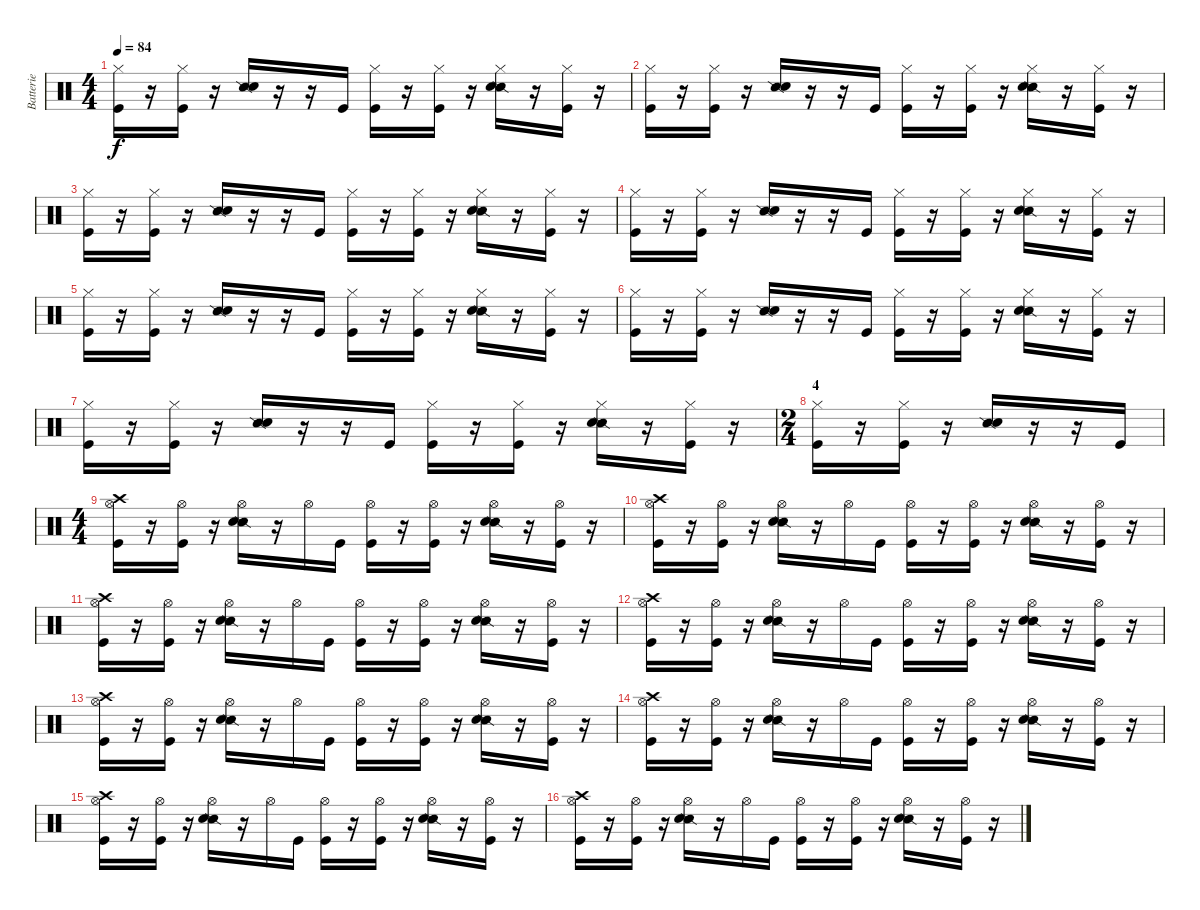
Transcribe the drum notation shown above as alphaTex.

\track ("Batterie" "Batterie") {instrument percussion}
\staff {score}
\articulation defaults
\ts (4 4)
\tempo 84
\clef neutral
\ks c
("Hi-Hat (closed)" "Kick (hit)").16{dy f} r.16 ("Hi-Hat (closed)" "Kick (hit)").16 r.16 ("Snare (side stick) 2" "Electric Snare (hit)").16 r.16 r.16 "Kick (hit)".16 ("Hi-Hat (closed)" "Kick (hit)").16 r.16 ("Hi-Hat (closed)" "Kick (hit)").16 r.16 ("Hi-Hat (closed)" "Snare (side stick) 2" "Electric Snare (hit)").16 r.16 ("Hi-Hat (closed)" "Kick (hit)").16 r.16 |
("Hi-Hat (closed)" "Kick (hit)").16 r.16 ("Hi-Hat (closed)" "Kick (hit)").16 r.16 ("Snare (side stick) 2" "Electric Snare (hit)").16 r.16 r.16 "Kick (hit)".16 ("Hi-Hat (closed)" "Kick (hit)").16 r.16 ("Hi-Hat (closed)" "Kick (hit)").16 r.16 ("Hi-Hat (closed)" "Snare (side stick) 2" "Electric Snare (hit)").16 r.16 ("Hi-Hat (closed)" "Kick (hit)").16 r.16 |
("Hi-Hat (closed)" "Kick (hit)").16 r.16 ("Hi-Hat (closed)" "Kick (hit)").16 r.16 ("Snare (side stick) 2" "Electric Snare (hit)").16 r.16 r.16 "Kick (hit)".16 ("Hi-Hat (closed)" "Kick (hit)").16 r.16 ("Hi-Hat (closed)" "Kick (hit)").16 r.16 ("Hi-Hat (closed)" "Snare (side stick) 2" "Electric Snare (hit)").16 r.16 ("Hi-Hat (closed)" "Kick (hit)").16 r.16 |
("Hi-Hat (closed)" "Kick (hit)").16 r.16 ("Hi-Hat (closed)" "Kick (hit)").16 r.16 ("Snare (side stick) 2" "Electric Snare (hit)").16 r.16 r.16 "Kick (hit)".16 ("Hi-Hat (closed)" "Kick (hit)").16 r.16 ("Hi-Hat (closed)" "Kick (hit)").16 r.16 ("Hi-Hat (closed)" "Snare (side stick) 2" "Electric Snare (hit)").16 r.16 ("Hi-Hat (closed)" "Kick (hit)").16 r.16 |
("Hi-Hat (closed)" "Kick (hit)").16 r.16 ("Hi-Hat (closed)" "Kick (hit)").16 r.16 ("Snare (side stick) 2" "Electric Snare (hit)").16 r.16 r.16 "Kick (hit)".16 ("Hi-Hat (closed)" "Kick (hit)").16 r.16 ("Hi-Hat (closed)" "Kick (hit)").16 r.16 ("Hi-Hat (closed)" "Snare (side stick) 2" "Electric Snare (hit)").16 r.16 ("Hi-Hat (closed)" "Kick (hit)").16 r.16 |
("Hi-Hat (closed)" "Kick (hit)").16 r.16 ("Hi-Hat (closed)" "Kick (hit)").16 r.16 ("Snare (side stick) 2" "Electric Snare (hit)").16 r.16 r.16 "Kick (hit)".16 ("Hi-Hat (closed)" "Kick (hit)").16 r.16 ("Hi-Hat (closed)" "Kick (hit)").16 r.16 ("Hi-Hat (closed)" "Snare (side stick) 2" "Electric Snare (hit)").16 r.16 ("Hi-Hat (closed)" "Kick (hit)").16 r.16 |
("Hi-Hat (closed)" "Kick (hit)").16 r.16 ("Hi-Hat (closed)" "Kick (hit)").16 r.16 ("Snare (side stick) 2" "Electric Snare (hit)").16 r.16 r.16 "Kick (hit)".16 ("Hi-Hat (closed)" "Kick (hit)").16 r.16 ("Hi-Hat (closed)" "Kick (hit)").16 r.16 ("Hi-Hat (closed)" "Snare (side stick) 2" "Electric Snare (hit)").16 r.16 ("Hi-Hat (closed)" "Kick (hit)").16 r.16 |
\ts (2 4)
\section ("" "4")
("Hi-Hat (closed)" "Kick (hit)").16 r.16 ("Hi-Hat (closed)" "Kick (hit)").16 r.16 ("Snare (side stick) 2" "Electric Snare (hit)").16 r.16 r.16 "Kick (hit)".16 |
\ts (4 4)
("Hi-Hat (open)" "Crash high (hit)" "Kick (hit)").16 r.16 ("Hi-Hat (open)" "Kick (hit)").16 r.16 ("Hi-Hat (open)" "Snare (side stick) 2" "Electric Snare (hit)").16 r.16 "Hi-Hat (open)".16 "Kick (hit)".16 ("Hi-Hat (open)" "Kick (hit)").16 r.16 ("Hi-Hat (open)" "Kick (hit)").16 r.16 ("Hi-Hat (open)" "Snare (side stick) 2" "Electric Snare (hit)").16 r.16 ("Hi-Hat (open)" "Kick (hit)").16 r.16 |
("Hi-Hat (open)" "Crash high (hit)" "Kick (hit)").16 r.16 ("Hi-Hat (open)" "Kick (hit)").16 r.16 ("Hi-Hat (open)" "Snare (side stick) 2" "Electric Snare (hit)").16 r.16 "Hi-Hat (open)".16 "Kick (hit)".16 ("Hi-Hat (open)" "Kick (hit)").16 r.16 ("Hi-Hat (open)" "Kick (hit)").16 r.16 ("Hi-Hat (open)" "Snare (side stick) 2" "Electric Snare (hit)").16 r.16 ("Hi-Hat (open)" "Kick (hit)").16 r.16 |
("Hi-Hat (open)" "Crash high (hit)" "Kick (hit)").16 r.16 ("Hi-Hat (open)" "Kick (hit)").16 r.16 ("Hi-Hat (open)" "Snare (side stick) 2" "Electric Snare (hit)").16 r.16 "Hi-Hat (open)".16 "Kick (hit)".16 ("Hi-Hat (open)" "Kick (hit)").16 r.16 ("Hi-Hat (open)" "Kick (hit)").16 r.16 ("Hi-Hat (open)" "Snare (side stick) 2" "Electric Snare (hit)").16 r.16 ("Hi-Hat (open)" "Kick (hit)").16 r.16 |
("Hi-Hat (open)" "Crash high (hit)" "Kick (hit)").16 r.16 ("Hi-Hat (open)" "Kick (hit)").16 r.16 ("Hi-Hat (open)" "Snare (side stick) 2" "Electric Snare (hit)").16 r.16 "Hi-Hat (open)".16 "Kick (hit)".16 ("Hi-Hat (open)" "Kick (hit)").16 r.16 ("Hi-Hat (open)" "Kick (hit)").16 r.16 ("Hi-Hat (open)" "Snare (side stick) 2" "Electric Snare (hit)").16 r.16 ("Hi-Hat (open)" "Kick (hit)").16 r.16 |
("Hi-Hat (open)" "Crash high (hit)" "Kick (hit)").16 r.16 ("Hi-Hat (open)" "Kick (hit)").16 r.16 ("Hi-Hat (open)" "Snare (side stick) 2" "Electric Snare (hit)").16 r.16 "Hi-Hat (open)".16 "Kick (hit)".16 ("Hi-Hat (open)" "Kick (hit)").16 r.16 ("Hi-Hat (open)" "Kick (hit)").16 r.16 ("Hi-Hat (open)" "Snare (side stick) 2" "Electric Snare (hit)").16 r.16 ("Hi-Hat (open)" "Kick (hit)").16 r.16 |
("Hi-Hat (open)" "Crash high (hit)" "Kick (hit)").16 r.16 ("Hi-Hat (open)" "Kick (hit)").16 r.16 ("Hi-Hat (open)" "Snare (side stick) 2" "Electric Snare (hit)").16 r.16 "Hi-Hat (open)".16 "Kick (hit)".16 ("Hi-Hat (open)" "Kick (hit)").16 r.16 ("Hi-Hat (open)" "Kick (hit)").16 r.16 ("Hi-Hat (open)" "Snare (side stick) 2" "Electric Snare (hit)").16 r.16 ("Hi-Hat (open)" "Kick (hit)").16 r.16 |
("Hi-Hat (open)" "Crash high (hit)" "Kick (hit)").16 r.16 ("Hi-Hat (open)" "Kick (hit)").16 r.16 ("Hi-Hat (open)" "Snare (side stick) 2" "Electric Snare (hit)").16 r.16 "Hi-Hat (open)".16 "Kick (hit)".16 ("Hi-Hat (open)" "Kick (hit)").16 r.16 ("Hi-Hat (open)" "Kick (hit)").16 r.16 ("Hi-Hat (open)" "Snare (side stick) 2" "Electric Snare (hit)").16 r.16 ("Hi-Hat (open)" "Kick (hit)").16 r.16 |
("Hi-Hat (open)" "Crash high (hit)" "Kick (hit)").16 r.16 ("Hi-Hat (open)" "Kick (hit)").16 r.16 ("Hi-Hat (open)" "Snare (side stick) 2" "Electric Snare (hit)").16 r.16 "Hi-Hat (open)".16 "Kick (hit)".16 ("Hi-Hat (open)" "Kick (hit)").16 r.16 ("Hi-Hat (open)" "Kick (hit)").16 r.16 ("Hi-Hat (open)" "Snare (side stick) 2" "Electric Snare (hit)").16 r.16 ("Hi-Hat (open)" "Kick (hit)").16 r.16
